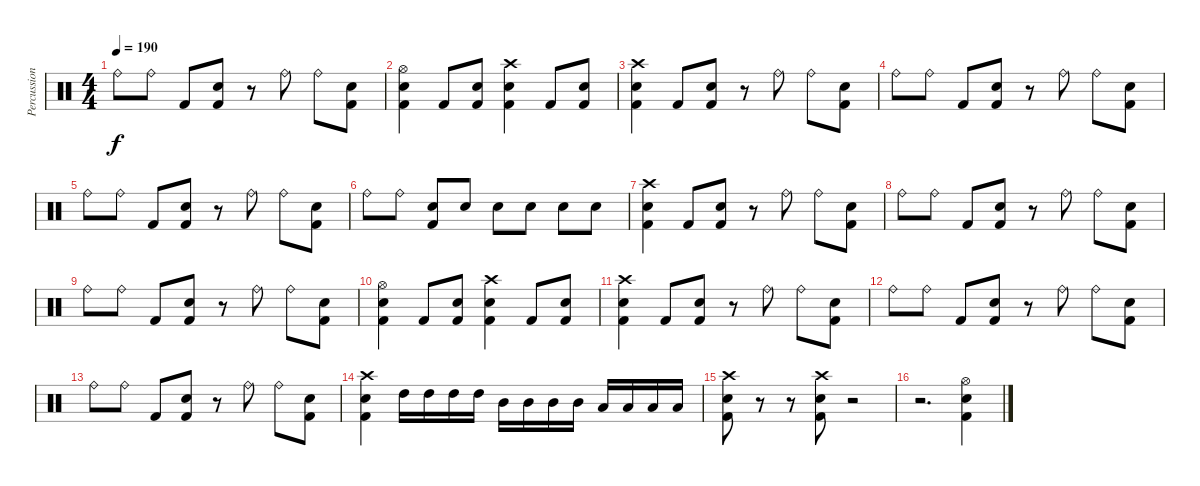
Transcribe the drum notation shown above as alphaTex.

\track ("Percussions" "Percussion") {instrument percussion}
\staff {score}
\articulation defaults
\ts (4 4)
\tempo 190
\clef neutral
\ks c "Ride (bell)".8{dy f} "Ride (bell)".8 "Kick (hit) 2".8
("Snare (hit) 2" "Kick (hit) 2").8 r.8 "Ride (bell)".8 "Ride (bell)".8 ("Snare (hit) 2" "Kick (hit) 2").8 |
("Hi-Hat (open)" "Snare (hit) 2" "Kick (hit) 2").4 "Kick (hit) 2".8 ("Snare (hit) 2" "Kick (hit) 2").8 ("Crash high (hit)" "Snare (hit) 2" "Kick (hit) 2").4 "Kick (hit) 2".8 ("Snare (hit) 2" "Kick (hit) 2").8 |
("Crash high (hit)" "Snare (hit) 2" "Kick (hit) 2").4 "Kick (hit) 2".8 ("Snare (hit) 2" "Kick (hit) 2").8 r.8 "Ride (bell)".8 "Ride (bell)".8 ("Snare (hit) 2" "Kick (hit) 2").8 |
"Ride (bell)".8 "Ride (bell)".8 "Kick (hit) 2".8 ("Snare (hit) 2" "Kick (hit) 2").8 r.8 "Ride (bell)".8 "Ride (bell)".8 ("Snare (hit) 2" "Kick (hit) 2").8 |
"Ride (bell)".8 "Ride (bell)".8 "Kick (hit) 2".8 ("Snare (hit) 2" "Kick (hit) 2").8 r.8 "Ride (bell)".8 "Ride (bell)".8 ("Snare (hit) 2" "Kick (hit) 2").8 |
"Ride (bell)".8 "Ride (bell)".8 ("Snare (hit) 2" "Kick (hit) 2").8 "Snare (hit) 2".8 "Snare (hit) 2".8 "Snare (hit) 2".8 "Snare (hit) 2".8 "Snare (hit) 2".8 |
("Crash high (hit)" "Snare (hit) 2" "Kick (hit) 2").4 "Kick (hit) 2".8 ("Snare (hit) 2" "Kick (hit) 2").8 r.8 "Ride (bell)".8 "Ride (bell)".8 ("Snare (hit) 2" "Kick (hit) 2").8 |
"Ride (bell)".8 "Ride (bell)".8 "Kick (hit) 2".8 ("Snare (hit) 2" "Kick (hit) 2").8 r.8 "Ride (bell)".8 "Ride (bell)".8 ("Snare (hit) 2" "Kick (hit) 2").8 |
"Ride (bell)".8 "Ride (bell)".8 "Kick (hit) 2".8 ("Snare (hit) 2" "Kick (hit) 2").8 r.8 "Ride (bell)".8 "Ride (bell)".8 ("Snare (hit) 2" "Kick (hit) 2").8 |
("Hi-Hat (open)" "Snare (hit) 2" "Kick (hit) 2").4 "Kick (hit) 2".8 ("Snare (hit) 2" "Kick (hit) 2").8 ("Crash high (hit)" "Snare (hit) 2" "Kick (hit) 2").4 "Kick (hit) 2".8 ("Snare (hit) 2" "Kick (hit) 2").8 |
("Crash high (hit)" "Snare (hit) 2" "Kick (hit) 2").4 "Kick (hit) 2".8 ("Snare (hit) 2" "Kick (hit) 2").8 r.8 "Ride (bell)".8 "Ride (bell)".8 ("Snare (hit) 2" "Kick (hit) 2").8 |
"Ride (bell)".8 "Ride (bell)".8 "Kick (hit) 2".8 ("Snare (hit) 2" "Kick (hit) 2").8 r.8 "Ride (bell)".8 "Ride (bell)".8 ("Snare (hit) 2" "Kick (hit) 2").8 |
"Ride (bell)".8 "Ride (bell)".8 "Kick (hit) 2".8 ("Snare (hit) 2" "Kick (hit) 2").8 r.8 "Ride (bell)".8 "Ride (bell)".8 ("Snare (hit) 2" "Kick (hit) 2").8 |
("Crash high (hit)" "Snare (hit) 2" "Kick (hit) 2").4 "High Tom (hit)".16 "High Tom (hit)".16 "High Tom (hit)".16 "High Tom (hit)".16 "Mid Tom (hit)".16 "Mid Tom (hit)".16 "Mid Tom (hit)".16 "Mid Tom (hit)".16 "Low Tom (hit)".16 "Low Tom (hit)".16 "Low Tom (hit)".16 "Low Tom (hit)".16 |
("Crash high (hit)" "Snare (hit) 2" "Kick (hit) 2").8 r.8 r.8 ("Crash high (hit)" "Snare (hit) 2" "Kick (hit) 2").8 r.2 |
r.2{d} ("Hi-Hat (open)" "Snare (hit) 2" "Kick (hit) 2").4
